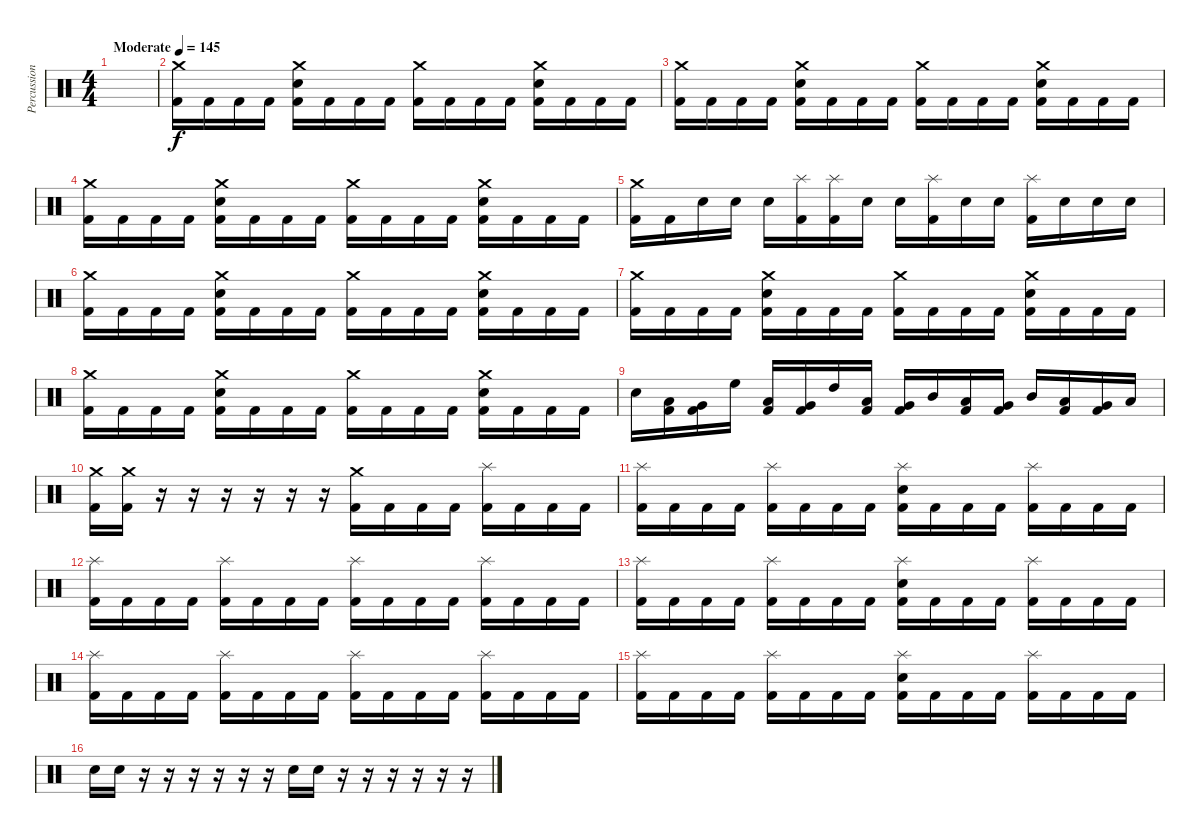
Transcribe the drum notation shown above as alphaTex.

\track ("Percussion" "Percussion") {instrument percussion}
\staff {score}
\articulation defaults
\ts (4 4)
\tempo (145 "Moderate")
\clef neutral
\ks c
|
("Crash medium (hit)" "Kick (hit) 2").16 "Kick (hit) 2".16 "Kick (hit) 2".16 "Kick (hit) 2".16 ("Crash medium (hit)" "Electric Snare (hit)" "Kick (hit) 2").16 "Kick (hit) 2".16 "Kick (hit) 2".16 "Kick (hit) 2".16 ("Crash medium (hit)" "Kick (hit) 2").16 "Kick (hit) 2".16 "Kick (hit) 2".16 "Kick (hit) 2".16 ("Crash medium (hit)" "Electric Snare (hit)" "Kick (hit) 2").16 "Kick (hit) 2".16 "Kick (hit) 2".16 "Kick (hit) 2".16 |
("Crash medium (hit)" "Kick (hit) 2").16 "Kick (hit) 2".16 "Kick (hit) 2".16 "Kick (hit) 2".16 ("Crash medium (hit)" "Electric Snare (hit)" "Kick (hit) 2").16 "Kick (hit) 2".16 "Kick (hit) 2".16 "Kick (hit) 2".16 ("Crash medium (hit)" "Kick (hit) 2").16 "Kick (hit) 2".16 "Kick (hit) 2".16 "Kick (hit) 2".16 ("Crash medium (hit)" "Electric Snare (hit)" "Kick (hit) 2").16 "Kick (hit) 2".16 "Kick (hit) 2".16 "Kick (hit) 2".16 |
("Crash medium (hit)" "Kick (hit) 2").16 "Kick (hit) 2".16 "Kick (hit) 2".16 "Kick (hit) 2".16 ("Crash medium (hit)" "Electric Snare (hit)" "Kick (hit) 2").16 "Kick (hit) 2".16 "Kick (hit) 2".16 "Kick (hit) 2".16 ("Crash medium (hit)" "Kick (hit) 2").16 "Kick (hit) 2".16 "Kick (hit) 2".16 "Kick (hit) 2".16 ("Crash medium (hit)" "Electric Snare (hit)" "Kick (hit) 2").16 "Kick (hit) 2".16 "Kick (hit) 2".16 "Kick (hit) 2".16 |
("Crash medium (hit)" "Kick (hit) 2").16 "Kick (hit) 2".16 "Electric Snare (hit)".16 "Electric Snare (hit)".16 "Electric Snare (hit)".16 ("Splash (hit)" "Kick (hit) 2").16 ("Splash (hit)" "Kick (hit) 2").16 "Electric Snare (hit)".16 "Electric Snare (hit)".16 ("Splash (hit)" "Kick (hit) 2").16 "Electric Snare (hit)".16 "Electric Snare (hit)".16 ("Splash (hit)" "Kick (hit) 2").16 "Electric Snare (hit)".16 "Electric Snare (hit)".16 "Electric Snare (hit)".16 |
("Crash medium (hit)" "Kick (hit) 2").16 "Kick (hit) 2".16 "Kick (hit) 2".16 "Kick (hit) 2".16 ("Crash medium (hit)" "Electric Snare (hit)" "Kick (hit) 2").16 "Kick (hit) 2".16 "Kick (hit) 2".16 "Kick (hit) 2".16 ("Crash medium (hit)" "Kick (hit) 2").16 "Kick (hit) 2".16 "Kick (hit) 2".16 "Kick (hit) 2".16 ("Crash medium (hit)" "Electric Snare (hit)" "Kick (hit) 2").16 "Kick (hit) 2".16 "Kick (hit) 2".16 "Kick (hit) 2".16 |
("Crash medium (hit)" "Kick (hit) 2").16 "Kick (hit) 2".16 "Kick (hit) 2".16 "Kick (hit) 2".16 ("Crash medium (hit)" "Electric Snare (hit)" "Kick (hit) 2").16 "Kick (hit) 2".16 "Kick (hit) 2".16 "Kick (hit) 2".16 ("Crash medium (hit)" "Kick (hit) 2").16 "Kick (hit) 2".16 "Kick (hit) 2".16 "Kick (hit) 2".16 ("Crash medium (hit)" "Electric Snare (hit)" "Kick (hit) 2").16 "Kick (hit) 2".16 "Kick (hit) 2".16 "Kick (hit) 2".16 |
("Crash medium (hit)" "Kick (hit) 2").16 "Kick (hit) 2".16 "Kick (hit) 2".16 "Kick (hit) 2".16 ("Crash medium (hit)" "Electric Snare (hit)" "Kick (hit) 2").16 "Kick (hit) 2".16 "Kick (hit) 2".16 "Kick (hit) 2".16 ("Crash medium (hit)" "Kick (hit) 2").16 "Kick (hit) 2".16 "Kick (hit) 2".16 "Kick (hit) 2".16 ("Crash medium (hit)" "Electric Snare (hit)" "Kick (hit) 2").16 "Kick (hit) 2".16 "Kick (hit) 2".16 "Kick (hit) 2".16 |
"Electric Snare (hit)".16 ("Low Tom (hit)" "Kick (hit) 2").16 ("Very Low Tom (hit)" "Kick (hit) 2").16 "High Floor Tom (hit)".16 ("Low Tom (hit)" "Kick (hit) 2").16 ("Very Low Tom (hit)" "Kick (hit) 2").16 "High Tom (hit)".16 ("Low Tom (hit)" "Kick (hit) 2").16 ("Very Low Tom (hit)" "Kick (hit) 2").16 "Mid Tom (hit)".16 ("Low Tom (hit)" "Kick (hit) 2").16 ("Very Low Tom (hit)" "Kick (hit) 2").16 "Mid Tom (hit)".16 ("Low Tom (hit)" "Kick (hit) 2").16 ("Very Low Tom (hit)" "Kick (hit) 2").16 "Low Floor Tom (hit)".16 |
("Crash medium (hit)" "Kick (hit) 2").16 ("Crash medium (hit)" "Kick (hit) 2").16 r.16{volume 0} r.16 r.16 r.16 r.16 r.16 ("Crash medium (hit)" "Kick (hit) 2").16{volume 13} "Kick (hit) 2".16 "Kick (hit) 2".16 "Kick (hit) 2".16 ("Splash (hit)" "Kick (hit) 2").16 "Kick (hit) 2".16 "Kick (hit) 2".16 "Kick (hit) 2".16 |
("Splash (hit)" "Kick (hit) 2").16 "Kick (hit) 2".16 "Kick (hit) 2".16 "Kick (hit) 2".16 ("Splash (hit)" "Kick (hit) 2").16 "Kick (hit) 2".16 "Kick (hit) 2".16 "Kick (hit) 2".16 ("Splash (hit)" "Electric Snare (hit)" "Kick (hit) 2").16 "Kick (hit) 2".16 "Kick (hit) 2".16 "Kick (hit) 2".16 ("Splash (hit)" "Kick (hit) 2").16 "Kick (hit) 2".16 "Kick (hit) 2".16 "Kick (hit) 2".16 |
("Splash (hit)" "Kick (hit) 2").16 "Kick (hit) 2".16 "Kick (hit) 2".16 "Kick (hit) 2".16 ("Splash (hit)" "Kick (hit) 2").16 "Kick (hit) 2".16 "Kick (hit) 2".16 "Kick (hit) 2".16 ("Splash (hit)" "Kick (hit) 2").16 "Kick (hit) 2".16 "Kick (hit) 2".16 "Kick (hit) 2".16 ("Splash (hit)" "Kick (hit) 2").16 "Kick (hit) 2".16 "Kick (hit) 2".16 "Kick (hit) 2".16 |
("Splash (hit)" "Kick (hit) 2").16 "Kick (hit) 2".16 "Kick (hit) 2".16 "Kick (hit) 2".16 ("Splash (hit)" "Kick (hit) 2").16 "Kick (hit) 2".16 "Kick (hit) 2".16 "Kick (hit) 2".16 ("Splash (hit)" "Electric Snare (hit)" "Kick (hit) 2").16 "Kick (hit) 2".16 "Kick (hit) 2".16 "Kick (hit) 2".16 ("Splash (hit)" "Kick (hit) 2").16 "Kick (hit) 2".16 "Kick (hit) 2".16 "Kick (hit) 2".16 |
("Splash (hit)" "Kick (hit) 2").16 "Kick (hit) 2".16 "Kick (hit) 2".16 "Kick (hit) 2".16 ("Splash (hit)" "Kick (hit) 2").16 "Kick (hit) 2".16 "Kick (hit) 2".16 "Kick (hit) 2".16 ("Splash (hit)" "Kick (hit) 2").16 "Kick (hit) 2".16 "Kick (hit) 2".16 "Kick (hit) 2".16 ("Splash (hit)" "Kick (hit) 2").16 "Kick (hit) 2".16 "Kick (hit) 2".16 "Kick (hit) 2".16 |
("Splash (hit)" "Kick (hit) 2").16 "Kick (hit) 2".16 "Kick (hit) 2".16 "Kick (hit) 2".16 ("Splash (hit)" "Kick (hit) 2").16 "Kick (hit) 2".16 "Kick (hit) 2".16 "Kick (hit) 2".16 ("Splash (hit)" "Electric Snare (hit)" "Kick (hit) 2").16 "Kick (hit) 2".16 "Kick (hit) 2".16 "Kick (hit) 2".16 ("Splash (hit)" "Kick (hit) 2").16 "Kick (hit) 2".16 "Kick (hit) 2".16 "Kick (hit) 2".16 |
"Electric Snare (hit)".16 "Electric Snare (hit)".16 r.16 r.16 r.16 r.16 r.16 r.16 "Electric Snare (hit)".16 "Electric Snare (hit)".16 r.16 r.16 r.16 r.16 r.16 r.16
